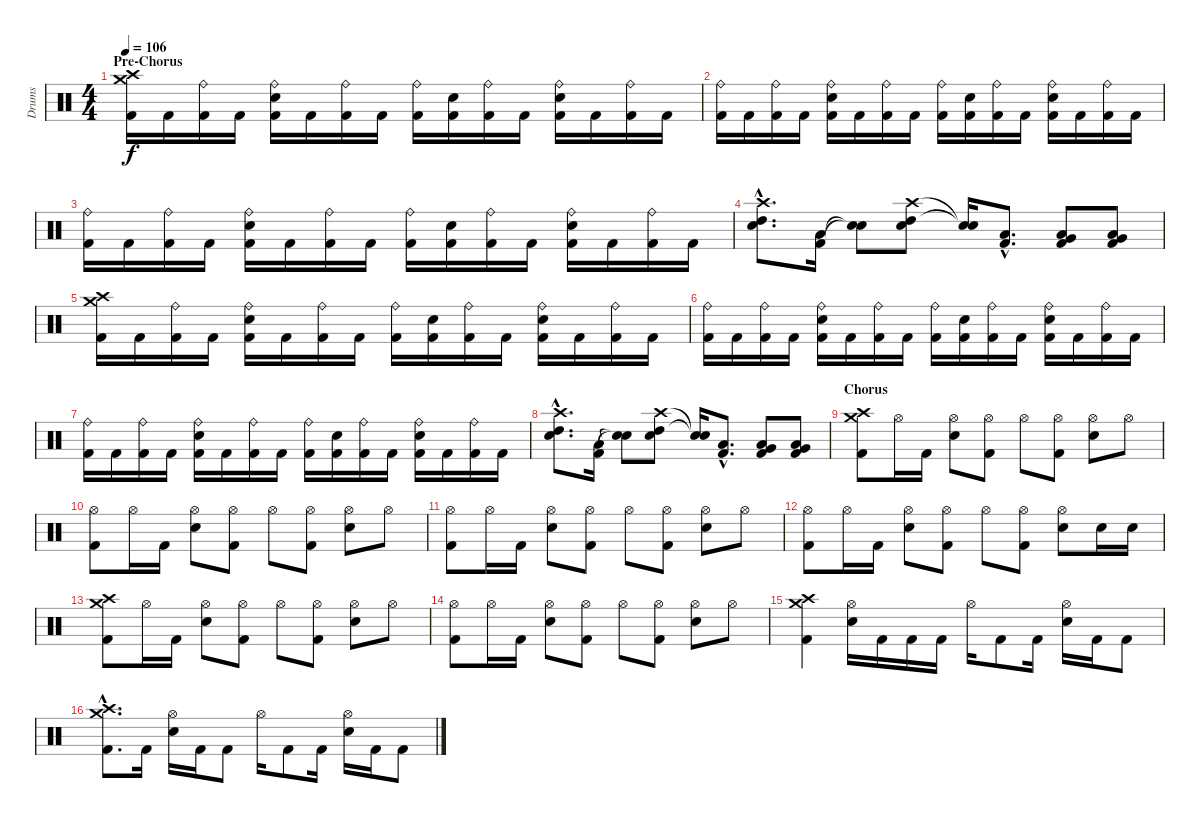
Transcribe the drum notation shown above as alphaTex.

\track ("Drums" "Drums") {instrument percussion}
\staff {score}
\articulation defaults
\ts (4 4)
\section ("" "Pre-Chorus")
\tempo 106
\clef neutral
\ks c
("Crash high (hit)" "Crash medium (hit)" "Kick (hit) 2").16{dy f} "Kick (hit) 2".16 ("Ride (bell)" "Kick (hit) 2").16 "Kick (hit) 2".16 ("Ride (bell)" "Electric Snare (hit)" "Kick (hit) 2").16 "Kick (hit) 2".16 ("Ride (bell)" "Kick (hit) 2").16 "Kick (hit) 2".16 ("Ride (bell)" "Kick (hit) 2").16 ("Electric Snare (hit)" "Kick (hit) 2").16 ("Ride (bell)" "Kick (hit) 2").16 "Kick (hit) 2".16 ("Ride (bell)" "Electric Snare (hit)" "Kick (hit) 2").16 "Kick (hit) 2".16 ("Ride (bell)" "Kick (hit) 2").16 "Kick (hit) 2".16 |
("Ride (bell)" "Kick (hit) 2").16 "Kick (hit) 2".16 ("Ride (bell)" "Kick (hit) 2").16 "Kick (hit) 2".16 ("Ride (bell)" "Electric Snare (hit)" "Kick (hit) 2").16 "Kick (hit) 2".16 ("Ride (bell)" "Kick (hit) 2").16 "Kick (hit) 2".16 ("Ride (bell)" "Kick (hit) 2").16 ("Electric Snare (hit)" "Kick (hit) 2").16 ("Ride (bell)" "Kick (hit) 2").16 "Kick (hit) 2".16 ("Ride (bell)" "Electric Snare (hit)" "Kick (hit) 2").16 "Kick (hit) 2".16 ("Ride (bell)" "Kick (hit) 2").16 "Kick (hit) 2".16 |
("Ride (bell)" "Kick (hit) 2").16 "Kick (hit) 2".16 ("Ride (bell)" "Kick (hit) 2").16 "Kick (hit) 2".16 ("Ride (bell)" "Electric Snare (hit)" "Kick (hit) 2").16 "Kick (hit) 2".16 ("Ride (bell)" "Kick (hit) 2").16 "Kick (hit) 2".16 ("Ride (bell)" "Kick (hit) 2").16 ("Electric Snare (hit)" "Kick (hit) 2").16 ("Ride (bell)" "Kick (hit) 2").16 "Kick (hit) 2".16 ("Ride (bell)" "Electric Snare (hit)" "Kick (hit) 2").16 "Kick (hit) 2".16 ("Ride (bell)" "Kick (hit) 2").16 "Kick (hit) 2".16 |
("Crash high (hit)"{hac} "High Tom (hit)"{hac} "Electric Snare (hit)"{hac}).8{d} ("Low Tom (hit)" "Kick (hit) 2").16 ("Snare (hit)"{t} "Snare (hit)"{t}).8 ("Crash high (hit)" "High Tom (hit)" "Electric Snare (hit)").8 ("Snare (hit)"{t} "Snare (hit)"{t}).16 ("Low Tom (hit)"{hac} "Kick (hit) 2"{hac}).8{d} ("Very Low Tom (hit)" "Low Floor Tom (hit)" "Kick (hit) 2").8 ("Very Low Tom (hit)" "Low Floor Tom (hit)" "Kick (hit) 2").8 |
("Crash high (hit)" "Crash medium (hit)" "Kick (hit) 2").16 "Kick (hit) 2".16 ("Ride (bell)" "Kick (hit) 2").16 "Kick (hit) 2".16 ("Ride (bell)" "Electric Snare (hit)" "Kick (hit) 2").16 "Kick (hit) 2".16 ("Ride (bell)" "Kick (hit) 2").16 "Kick (hit) 2".16 ("Ride (bell)" "Kick (hit) 2").16 ("Electric Snare (hit)" "Kick (hit) 2").16 ("Ride (bell)" "Kick (hit) 2").16 "Kick (hit) 2".16 ("Ride (bell)" "Electric Snare (hit)" "Kick (hit) 2").16 "Kick (hit) 2".16 ("Ride (bell)" "Kick (hit) 2").16 "Kick (hit) 2".16 |
("Ride (bell)" "Kick (hit) 2").16 "Kick (hit) 2".16 ("Ride (bell)" "Kick (hit) 2").16 "Kick (hit) 2".16 ("Ride (bell)" "Electric Snare (hit)" "Kick (hit) 2").16 "Kick (hit) 2".16 ("Ride (bell)" "Kick (hit) 2").16 "Kick (hit) 2".16 ("Ride (bell)" "Kick (hit) 2").16 ("Electric Snare (hit)" "Kick (hit) 2").16 ("Ride (bell)" "Kick (hit) 2").16 "Kick (hit) 2".16 ("Ride (bell)" "Electric Snare (hit)" "Kick (hit) 2").16 "Kick (hit) 2".16 ("Ride (bell)" "Kick (hit) 2").16 "Kick (hit) 2".16 |
("Ride (bell)" "Kick (hit) 2").16 "Kick (hit) 2".16 ("Ride (bell)" "Kick (hit) 2").16 "Kick (hit) 2".16 ("Ride (bell)" "Electric Snare (hit)" "Kick (hit) 2").16 "Kick (hit) 2".16 ("Ride (bell)" "Kick (hit) 2").16 "Kick (hit) 2".16 ("Ride (bell)" "Kick (hit) 2").16 ("Electric Snare (hit)" "Kick (hit) 2").16 ("Ride (bell)" "Kick (hit) 2").16 "Kick (hit) 2".16 ("Ride (bell)" "Electric Snare (hit)" "Kick (hit) 2").16 "Kick (hit) 2".16 ("Ride (bell)" "Kick (hit) 2").16 "Kick (hit) 2".16 |
("Crash high (hit)"{hac} "High Tom (hit)"{hac} "Electric Snare (hit)"{hac}).8{d} ("Low Tom (hit)" "Kick (hit) 2").16 ("Snare (hit)"{t} "Snare (hit)"{t}).8 ("Crash high (hit)" "High Tom (hit)" "Electric Snare (hit)").8 ("Snare (hit)"{t} "Snare (hit)"{t}).16 ("Low Tom (hit)"{hac} "Kick (hit) 2"{hac}).8{d} ("Very Low Tom (hit)" "Low Floor Tom (hit)" "Kick (hit) 2").8 ("Very Low Tom (hit)" "Low Floor Tom (hit)" "Kick (hit) 2").8 |
\section ("" "Chorus")
("Crash high (hit)" "Crash medium (hit)" "Kick (hit) 2").8 "Hi-Hat (open)".16 "Kick (hit) 2".16 ("Hi-Hat (open)" "Electric Snare (hit)").8 ("Hi-Hat (open)" "Kick (hit) 2").8 "Hi-Hat (open)".8 ("Hi-Hat (open)" "Kick (hit) 2").8 ("Hi-Hat (open)" "Electric Snare (hit)").8 "Hi-Hat (open)".8 |
("Hi-Hat (open)" "Kick (hit) 2").8 "Hi-Hat (open)".16 "Kick (hit) 2".16 ("Hi-Hat (open)" "Electric Snare (hit)").8 ("Hi-Hat (open)" "Kick (hit) 2").8 "Hi-Hat (open)".8 ("Hi-Hat (open)" "Kick (hit) 2").8 ("Hi-Hat (open)" "Electric Snare (hit)").8 "Hi-Hat (open)".8 |
("Hi-Hat (open)" "Kick (hit) 2").8 "Hi-Hat (open)".16 "Kick (hit) 2".16 ("Hi-Hat (open)" "Electric Snare (hit)").8 ("Hi-Hat (open)" "Kick (hit) 2").8 "Hi-Hat (open)".8 ("Hi-Hat (open)" "Kick (hit) 2").8 ("Hi-Hat (open)" "Electric Snare (hit)").8 "Hi-Hat (open)".8 |
("Hi-Hat (open)" "Kick (hit) 2").8 "Hi-Hat (open)".16 "Kick (hit) 2".16 ("Hi-Hat (open)" "Electric Snare (hit)").8 ("Hi-Hat (open)" "Kick (hit) 2").8 "Hi-Hat (open)".8 ("Hi-Hat (open)" "Kick (hit) 2").8 ("Hi-Hat (open)" "Electric Snare (hit)").8 "Electric Snare (hit)".16 "Electric Snare (hit)".16 |
("Crash high (hit)" "Crash medium (hit)" "Kick (hit) 2").8 "Hi-Hat (open)".16 "Kick (hit) 2".16 ("Hi-Hat (open)" "Electric Snare (hit)").8 ("Hi-Hat (open)" "Kick (hit) 2").8 "Hi-Hat (open)".8 ("Hi-Hat (open)" "Kick (hit) 2").8 ("Hi-Hat (open)" "Electric Snare (hit)").8 "Hi-Hat (open)".8 |
("Hi-Hat (open)" "Kick (hit) 2").8 "Hi-Hat (open)".16 "Kick (hit) 2".16 ("Hi-Hat (open)" "Electric Snare (hit)").8 ("Hi-Hat (open)" "Kick (hit) 2").8 "Hi-Hat (open)".8 ("Hi-Hat (open)" "Kick (hit) 2").8 ("Hi-Hat (open)" "Electric Snare (hit)").8 "Hi-Hat (open)".8 |
("Crash high (hit)" "Crash medium (hit)" "Kick (hit) 2").4 ("Hi-Hat (open)" "Electric Snare (hit)").16 "Kick (hit) 2".16 "Kick (hit) 2".16 "Kick (hit) 2".16 "Hi-Hat (open)".16 "Kick (hit) 2".8 "Kick (hit) 2".16 ("Hi-Hat (open)" "Electric Snare (hit)").16 "Kick (hit) 2".16 "Kick (hit) 2".8 |
("Crash high (hit)"{hac} "Crash medium (hit)"{hac} "Kick (hit) 2"{hac}).8{d} "Kick (hit) 2".16 ("Hi-Hat (open)" "Electric Snare (hit)").16 "Kick (hit) 2".16 "Kick (hit) 2".8 "Hi-Hat (open)".16 "Kick (hit) 2".8 "Kick (hit) 2".16 ("Hi-Hat (open)" "Electric Snare (hit)").16 "Kick (hit) 2".16 "Kick (hit) 2".8
